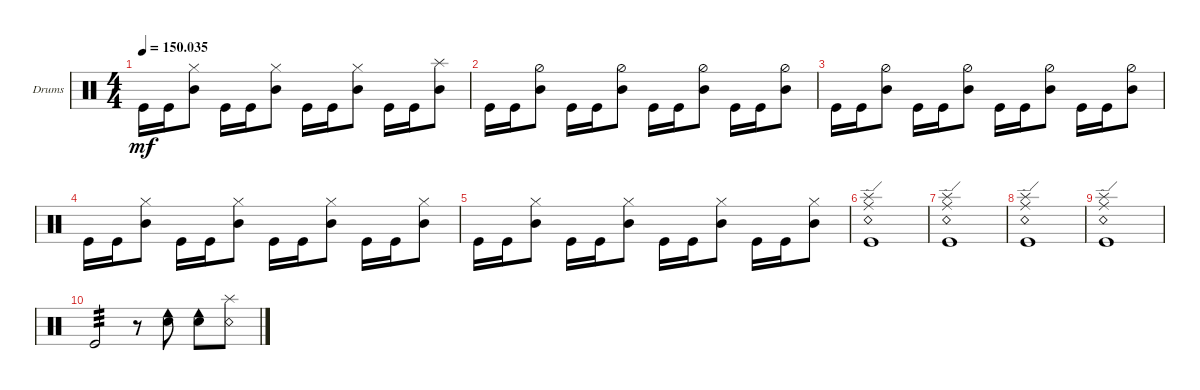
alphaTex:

\defaultSystemsLayout 4
\bracketExtendMode groupsimilarinstruments
\firstSystemTrackNameOrientation horizontal
\otherSystemsTrackNameOrientation horizontal
\track ("Drumkit" "Drums") {instrument percussion}
\staff {score}
\articulation defaults
\ts (4 4)
\tempo
150.035
\accidentals auto
\clef neutral
\ottava regular
\simile none
\ks c "Kick (hit)".16{dy mf} "Kick (hit)".16
("Mid Tom (hit)" "Hi-Hat (closed)").8 "Kick (hit)".16 "Kick (hit)".16 ("Mid Tom (hit)" "Hi-Hat (closed)").8 "Kick (hit)".16 "Kick (hit)".16 ("Mid Tom (hit)" "Hi-Hat (closed)").8 "Kick (hit)".16 "Kick (hit)".16 ("Mid Tom (hit)" "Splash (hit)").8 |
"Kick (hit)".16 "Kick (hit)".16 ("Mid Tom (hit)" "Hi-Hat (half)").8 "Kick (hit)".16 "Kick (hit)".16 ("Mid Tom (hit)" "Hi-Hat (half)").8 "Kick (hit)".16 "Kick (hit)".16 ("Mid Tom (hit)" "Hi-Hat (half)").8 "Kick (hit)".16 "Kick (hit)".16 ("Mid Tom (hit)" "Hi-Hat (half)").8 |
"Kick (hit)".16 "Kick (hit)".16 ("Mid Tom (hit)" "Hi-Hat (half)").8 "Kick (hit)".16 "Kick (hit)".16 ("Mid Tom (hit)" "Hi-Hat (half)").8 "Kick (hit)".16 "Kick (hit)".16 ("Mid Tom (hit)" "Hi-Hat (half)").8 "Kick (hit)".16 "Kick (hit)".16 ("Mid Tom (hit)" "Hi-Hat (half)").8 |
"Kick (hit)".16 "Kick (hit)".16 ("Mid Tom (hit)" "Hi-Hat (closed)").8 "Kick (hit)".16 "Kick (hit)".16 ("Mid Tom (hit)" "Hi-Hat (closed)").8 "Kick (hit)".16 "Kick (hit)".16 ("Mid Tom (hit)" "Hi-Hat (closed)").8 "Kick (hit)".16 "Kick (hit)".16 ("Mid Tom (hit)" "Hi-Hat (closed)").8 |
"Kick (hit)".16 "Kick (hit)".16 ("Mid Tom (hit)" "Hi-Hat (closed)").8 "Kick (hit)".16 "Kick (hit)".16 ("Mid Tom (hit)" "Hi-Hat (closed)").8 "Kick (hit)".16 "Kick (hit)".16 ("Mid Tom (hit)" "Hi-Hat (closed)").8 "Kick (hit)".16 "Kick (hit)".16 ("Mid Tom (hit)" "Hi-Hat (closed)").8 |
("Kick (hit)" "Snare (rim shot)" "Splash (hit)" "Ride (edge)").1 |
("Kick (hit)" "Snare (rim shot)" "Splash (hit)" "Ride (edge)").1 |
("Kick (hit)" "Snare (rim shot)" "Splash (hit)" "Ride (edge)").1 |
("Kick (hit)" "Snare (rim shot)" "Splash (hit)" "Ride (edge)").1 |
"Kick (hit)".2{tp 3} r.8 ("Snare (hit) 2" "Cowbell low (hit)").8 ("Snare (hit) 2" "Cowbell low (hit)").8 ("Splash (hit)" "Snare (rim shot)").8
